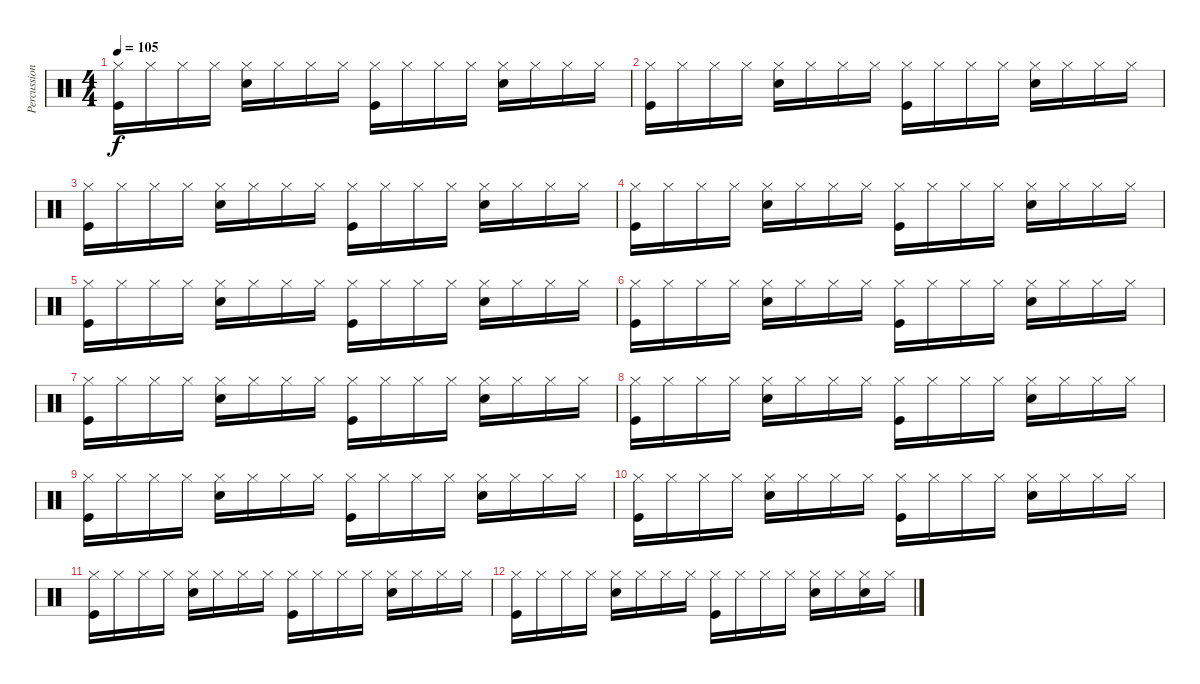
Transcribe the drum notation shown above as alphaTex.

\track ("Percussion" "Percussion") {instrument percussion}
\staff {score}
\articulation defaults
\ts (4 4)
\tempo 105
\clef neutral
\ks c
("Hi-Hat (closed)" "Kick (hit)").16{dy f} "Hi-Hat (closed)".16 "Hi-Hat (closed)".16 "Hi-Hat (closed)".16 ("Hi-Hat (closed)" "Snare (hit) 2").16 "Hi-Hat (closed)".16 "Hi-Hat (closed)".16 "Hi-Hat (closed)".16 ("Hi-Hat (closed)" "Kick (hit)").16 "Hi-Hat (closed)".16 "Hi-Hat (closed)".16 "Hi-Hat (closed)".16 ("Hi-Hat (closed)" "Snare (hit) 2").16 "Hi-Hat (closed)".16 "Hi-Hat (closed)".16 "Hi-Hat (closed)".16 |
("Hi-Hat (closed)" "Kick (hit)").16 "Hi-Hat (closed)".16 "Hi-Hat (closed)".16 "Hi-Hat (closed)".16 ("Hi-Hat (closed)" "Snare (hit) 2").16 "Hi-Hat (closed)".16 "Hi-Hat (closed)".16 "Hi-Hat (closed)".16 ("Hi-Hat (closed)" "Kick (hit)").16 "Hi-Hat (closed)".16 "Hi-Hat (closed)".16 "Hi-Hat (closed)".16 ("Hi-Hat (closed)" "Snare (hit) 2").16 "Hi-Hat (closed)".16 "Hi-Hat (closed)".16 "Hi-Hat (closed)".16 |
("Hi-Hat (closed)" "Kick (hit)").16 "Hi-Hat (closed)".16 "Hi-Hat (closed)".16 "Hi-Hat (closed)".16 ("Hi-Hat (closed)" "Snare (hit) 2").16 "Hi-Hat (closed)".16 "Hi-Hat (closed)".16 "Hi-Hat (closed)".16 ("Hi-Hat (closed)" "Kick (hit)").16 "Hi-Hat (closed)".16 "Hi-Hat (closed)".16 "Hi-Hat (closed)".16 ("Hi-Hat (closed)" "Snare (hit) 2").16 "Hi-Hat (closed)".16 "Hi-Hat (closed)".16 "Hi-Hat (closed)".16 |
("Hi-Hat (closed)" "Kick (hit)").16 "Hi-Hat (closed)".16 "Hi-Hat (closed)".16 "Hi-Hat (closed)".16 ("Hi-Hat (closed)" "Snare (hit) 2").16 "Hi-Hat (closed)".16 "Hi-Hat (closed)".16 "Hi-Hat (closed)".16 ("Hi-Hat (closed)" "Kick (hit)").16 "Hi-Hat (closed)".16 "Hi-Hat (closed)".16 "Hi-Hat (closed)".16 ("Hi-Hat (closed)" "Snare (hit) 2").16 "Hi-Hat (closed)".16 "Hi-Hat (closed)".16 "Hi-Hat (closed)".16 |
("Hi-Hat (closed)" "Kick (hit)").16 "Hi-Hat (closed)".16 "Hi-Hat (closed)".16 "Hi-Hat (closed)".16 ("Hi-Hat (closed)" "Snare (hit) 2").16 "Hi-Hat (closed)".16 "Hi-Hat (closed)".16 "Hi-Hat (closed)".16 ("Hi-Hat (closed)" "Kick (hit)").16 "Hi-Hat (closed)".16 "Hi-Hat (closed)".16 "Hi-Hat (closed)".16 ("Hi-Hat (closed)" "Snare (hit) 2").16 "Hi-Hat (closed)".16 "Hi-Hat (closed)".16 "Hi-Hat (closed)".16 |
("Hi-Hat (closed)" "Kick (hit)").16 "Hi-Hat (closed)".16 "Hi-Hat (closed)".16 "Hi-Hat (closed)".16 ("Hi-Hat (closed)" "Snare (hit) 2").16 "Hi-Hat (closed)".16 "Hi-Hat (closed)".16 "Hi-Hat (closed)".16 ("Hi-Hat (closed)" "Kick (hit)").16 "Hi-Hat (closed)".16 "Hi-Hat (closed)".16 "Hi-Hat (closed)".16 ("Hi-Hat (closed)" "Snare (hit) 2").16 "Hi-Hat (closed)".16 "Hi-Hat (closed)".16 "Hi-Hat (closed)".16 |
("Hi-Hat (closed)" "Kick (hit)").16 "Hi-Hat (closed)".16 "Hi-Hat (closed)".16 "Hi-Hat (closed)".16 ("Hi-Hat (closed)" "Snare (hit) 2").16 "Hi-Hat (closed)".16 "Hi-Hat (closed)".16 "Hi-Hat (closed)".16 ("Hi-Hat (closed)" "Kick (hit)").16 "Hi-Hat (closed)".16 "Hi-Hat (closed)".16 "Hi-Hat (closed)".16 ("Hi-Hat (closed)" "Snare (hit) 2").16 "Hi-Hat (closed)".16 "Hi-Hat (closed)".16 "Hi-Hat (closed)".16 |
("Hi-Hat (closed)" "Kick (hit)").16 "Hi-Hat (closed)".16 "Hi-Hat (closed)".16 "Hi-Hat (closed)".16 ("Hi-Hat (closed)" "Snare (hit) 2").16 "Hi-Hat (closed)".16 "Hi-Hat (closed)".16 "Hi-Hat (closed)".16 ("Hi-Hat (closed)" "Kick (hit)").16 "Hi-Hat (closed)".16 "Hi-Hat (closed)".16 "Hi-Hat (closed)".16 ("Hi-Hat (closed)" "Snare (hit) 2").16 "Hi-Hat (closed)".16 "Hi-Hat (closed)".16 "Hi-Hat (closed)".16 |
("Hi-Hat (closed)" "Kick (hit)").16 "Hi-Hat (closed)".16 "Hi-Hat (closed)".16 "Hi-Hat (closed)".16 ("Hi-Hat (closed)" "Snare (hit) 2").16 "Hi-Hat (closed)".16 "Hi-Hat (closed)".16 "Hi-Hat (closed)".16 ("Hi-Hat (closed)" "Kick (hit)").16 "Hi-Hat (closed)".16 "Hi-Hat (closed)".16 "Hi-Hat (closed)".16 ("Hi-Hat (closed)" "Snare (hit) 2").16 "Hi-Hat (closed)".16 "Hi-Hat (closed)".16 "Hi-Hat (closed)".16 |
("Hi-Hat (closed)" "Kick (hit)").16 "Hi-Hat (closed)".16 "Hi-Hat (closed)".16 "Hi-Hat (closed)".16 ("Hi-Hat (closed)" "Snare (hit) 2").16 "Hi-Hat (closed)".16 "Hi-Hat (closed)".16 "Hi-Hat (closed)".16 ("Hi-Hat (closed)" "Kick (hit)").16 "Hi-Hat (closed)".16 "Hi-Hat (closed)".16 "Hi-Hat (closed)".16 ("Hi-Hat (closed)" "Snare (hit) 2").16 "Hi-Hat (closed)".16 "Hi-Hat (closed)".16 "Hi-Hat (closed)".16 |
("Hi-Hat (closed)" "Kick (hit)").16 "Hi-Hat (closed)".16 "Hi-Hat (closed)".16 "Hi-Hat (closed)".16 ("Hi-Hat (closed)" "Snare (hit) 2").16 "Hi-Hat (closed)".16 "Hi-Hat (closed)".16 "Hi-Hat (closed)".16 ("Hi-Hat (closed)" "Kick (hit)").16 "Hi-Hat (closed)".16 "Hi-Hat (closed)".16 "Hi-Hat (closed)".16 ("Hi-Hat (closed)" "Snare (hit) 2").16 "Hi-Hat (closed)".16 "Hi-Hat (closed)".16 "Hi-Hat (closed)".16 |
("Hi-Hat (closed)" "Kick (hit)").16 "Hi-Hat (closed)".16 "Hi-Hat (closed)".16 "Hi-Hat (closed)".16 ("Hi-Hat (closed)" "Snare (hit) 2").16 "Hi-Hat (closed)".16 "Hi-Hat (closed)".16 "Hi-Hat (closed)".16 ("Hi-Hat (closed)" "Kick (hit)").16 "Hi-Hat (closed)".16 "Hi-Hat (closed)".16 "Hi-Hat (closed)".16 ("Hi-Hat (closed)" "Snare (hit) 2").16 "Hi-Hat (closed)".16 ("Hi-Hat (closed)" "Snare (hit) 2").16 "Hi-Hat (closed)".16
